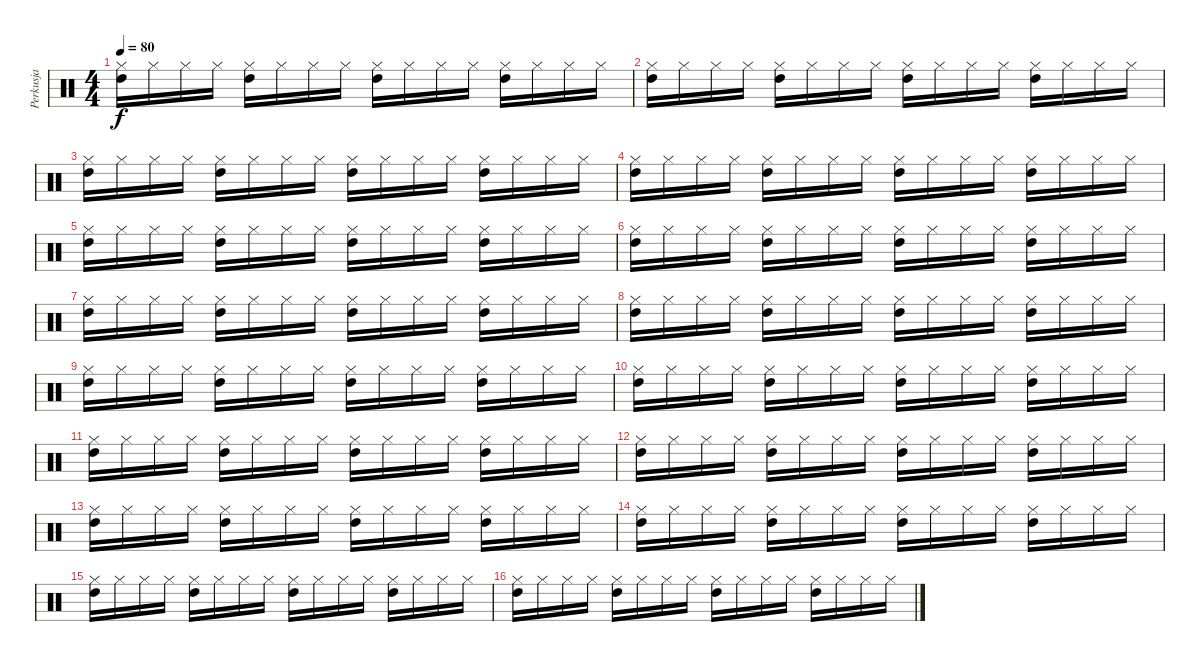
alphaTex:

\track ("Perkusja" "Perkusja") {instrument percussion}
\staff {score}
\articulation defaults
\ts (4 4)
\tempo 80
\clef neutral
\ks c
("Hi-Hat (closed)" "High Tom (hit)").16{dy f} "Hi-Hat (closed)".16 "Hi-Hat (closed)".16 "Hi-Hat (closed)".16 ("Hi-Hat (closed)" "High Tom (hit)").16 "Hi-Hat (closed)".16 "Hi-Hat (closed)".16 "Hi-Hat (closed)".16 ("Hi-Hat (closed)" "High Tom (hit)").16 "Hi-Hat (closed)".16 "Hi-Hat (closed)".16 "Hi-Hat (closed)".16 ("Hi-Hat (closed)" "High Tom (hit)").16 "Hi-Hat (closed)".16 "Hi-Hat (closed)".16 "Hi-Hat (closed)".16 |
("Hi-Hat (closed)" "High Tom (hit)").16 "Hi-Hat (closed)".16 "Hi-Hat (closed)".16 "Hi-Hat (closed)".16 ("Hi-Hat (closed)" "High Tom (hit)").16 "Hi-Hat (closed)".16 "Hi-Hat (closed)".16 "Hi-Hat (closed)".16 ("Hi-Hat (closed)" "High Tom (hit)").16 "Hi-Hat (closed)".16 "Hi-Hat (closed)".16 "Hi-Hat (closed)".16 ("Hi-Hat (closed)" "High Tom (hit)").16 "Hi-Hat (closed)".16 "Hi-Hat (closed)".16 "Hi-Hat (closed)".16 |
("Hi-Hat (closed)" "High Tom (hit)").16 "Hi-Hat (closed)".16 "Hi-Hat (closed)".16 "Hi-Hat (closed)".16 ("Hi-Hat (closed)" "High Tom (hit)").16 "Hi-Hat (closed)".16 "Hi-Hat (closed)".16 "Hi-Hat (closed)".16 ("Hi-Hat (closed)" "High Tom (hit)").16 "Hi-Hat (closed)".16 "Hi-Hat (closed)".16 "Hi-Hat (closed)".16 ("Hi-Hat (closed)" "High Tom (hit)").16 "Hi-Hat (closed)".16 "Hi-Hat (closed)".16 "Hi-Hat (closed)".16 |
("Hi-Hat (closed)" "High Tom (hit)").16 "Hi-Hat (closed)".16 "Hi-Hat (closed)".16 "Hi-Hat (closed)".16 ("Hi-Hat (closed)" "High Tom (hit)").16 "Hi-Hat (closed)".16 "Hi-Hat (closed)".16 "Hi-Hat (closed)".16 ("Hi-Hat (closed)" "High Tom (hit)").16 "Hi-Hat (closed)".16 "Hi-Hat (closed)".16 "Hi-Hat (closed)".16 ("Hi-Hat (closed)" "High Tom (hit)").16 "Hi-Hat (closed)".16 "Hi-Hat (closed)".16 "Hi-Hat (closed)".16 |
("Hi-Hat (closed)" "High Tom (hit)").16 "Hi-Hat (closed)".16 "Hi-Hat (closed)".16 "Hi-Hat (closed)".16 ("Hi-Hat (closed)" "High Tom (hit)").16 "Hi-Hat (closed)".16 "Hi-Hat (closed)".16 "Hi-Hat (closed)".16 ("Hi-Hat (closed)" "High Tom (hit)").16 "Hi-Hat (closed)".16 "Hi-Hat (closed)".16 "Hi-Hat (closed)".16 ("Hi-Hat (closed)" "High Tom (hit)").16 "Hi-Hat (closed)".16 "Hi-Hat (closed)".16 "Hi-Hat (closed)".16 |
("Hi-Hat (closed)" "High Tom (hit)").16 "Hi-Hat (closed)".16 "Hi-Hat (closed)".16 "Hi-Hat (closed)".16 ("Hi-Hat (closed)" "High Tom (hit)").16 "Hi-Hat (closed)".16 "Hi-Hat (closed)".16 "Hi-Hat (closed)".16 ("Hi-Hat (closed)" "High Tom (hit)").16 "Hi-Hat (closed)".16 "Hi-Hat (closed)".16 "Hi-Hat (closed)".16 ("Hi-Hat (closed)" "High Tom (hit)").16 "Hi-Hat (closed)".16 "Hi-Hat (closed)".16 "Hi-Hat (closed)".16 |
("Hi-Hat (closed)" "High Tom (hit)").16 "Hi-Hat (closed)".16 "Hi-Hat (closed)".16 "Hi-Hat (closed)".16 ("Hi-Hat (closed)" "High Tom (hit)").16 "Hi-Hat (closed)".16 "Hi-Hat (closed)".16 "Hi-Hat (closed)".16 ("Hi-Hat (closed)" "High Tom (hit)").16 "Hi-Hat (closed)".16 "Hi-Hat (closed)".16 "Hi-Hat (closed)".16 ("Hi-Hat (closed)" "High Tom (hit)").16 "Hi-Hat (closed)".16 "Hi-Hat (closed)".16 "Hi-Hat (closed)".16 |
("Hi-Hat (closed)" "High Tom (hit)").16 "Hi-Hat (closed)".16 "Hi-Hat (closed)".16 "Hi-Hat (closed)".16 ("Hi-Hat (closed)" "High Tom (hit)").16 "Hi-Hat (closed)".16 "Hi-Hat (closed)".16 "Hi-Hat (closed)".16 ("Hi-Hat (closed)" "High Tom (hit)").16 "Hi-Hat (closed)".16 "Hi-Hat (closed)".16 "Hi-Hat (closed)".16 ("Hi-Hat (closed)" "High Tom (hit)").16 "Hi-Hat (closed)".16 "Hi-Hat (closed)".16 "Hi-Hat (closed)".16 |
("Hi-Hat (closed)" "High Tom (hit)").16 "Hi-Hat (closed)".16 "Hi-Hat (closed)".16 "Hi-Hat (closed)".16 ("Hi-Hat (closed)" "High Tom (hit)").16 "Hi-Hat (closed)".16 "Hi-Hat (closed)".16 "Hi-Hat (closed)".16 ("Hi-Hat (closed)" "High Tom (hit)").16 "Hi-Hat (closed)".16 "Hi-Hat (closed)".16 "Hi-Hat (closed)".16 ("Hi-Hat (closed)" "High Tom (hit)").16 "Hi-Hat (closed)".16 "Hi-Hat (closed)".16 "Hi-Hat (closed)".16 |
("Hi-Hat (closed)" "High Tom (hit)").16 "Hi-Hat (closed)".16 "Hi-Hat (closed)".16 "Hi-Hat (closed)".16 ("Hi-Hat (closed)" "High Tom (hit)").16 "Hi-Hat (closed)".16 "Hi-Hat (closed)".16 "Hi-Hat (closed)".16 ("Hi-Hat (closed)" "High Tom (hit)").16 "Hi-Hat (closed)".16 "Hi-Hat (closed)".16 "Hi-Hat (closed)".16 ("Hi-Hat (closed)" "High Tom (hit)").16 "Hi-Hat (closed)".16 "Hi-Hat (closed)".16 "Hi-Hat (closed)".16 |
("Hi-Hat (closed)" "High Tom (hit)").16 "Hi-Hat (closed)".16 "Hi-Hat (closed)".16 "Hi-Hat (closed)".16 ("Hi-Hat (closed)" "High Tom (hit)").16 "Hi-Hat (closed)".16 "Hi-Hat (closed)".16 "Hi-Hat (closed)".16 ("Hi-Hat (closed)" "High Tom (hit)").16 "Hi-Hat (closed)".16 "Hi-Hat (closed)".16 "Hi-Hat (closed)".16 ("Hi-Hat (closed)" "High Tom (hit)").16 "Hi-Hat (closed)".16 "Hi-Hat (closed)".16 "Hi-Hat (closed)".16 |
("Hi-Hat (closed)" "High Tom (hit)").16 "Hi-Hat (closed)".16 "Hi-Hat (closed)".16 "Hi-Hat (closed)".16 ("Hi-Hat (closed)" "High Tom (hit)").16 "Hi-Hat (closed)".16 "Hi-Hat (closed)".16 "Hi-Hat (closed)".16 ("Hi-Hat (closed)" "High Tom (hit)").16 "Hi-Hat (closed)".16 "Hi-Hat (closed)".16 "Hi-Hat (closed)".16 ("Hi-Hat (closed)" "High Tom (hit)").16 "Hi-Hat (closed)".16 "Hi-Hat (closed)".16 "Hi-Hat (closed)".16 |
("Hi-Hat (closed)" "High Tom (hit)").16 "Hi-Hat (closed)".16 "Hi-Hat (closed)".16 "Hi-Hat (closed)".16 ("Hi-Hat (closed)" "High Tom (hit)").16 "Hi-Hat (closed)".16 "Hi-Hat (closed)".16 "Hi-Hat (closed)".16 ("Hi-Hat (closed)" "High Tom (hit)").16 "Hi-Hat (closed)".16 "Hi-Hat (closed)".16 "Hi-Hat (closed)".16 ("Hi-Hat (closed)" "High Tom (hit)").16 "Hi-Hat (closed)".16 "Hi-Hat (closed)".16 "Hi-Hat (closed)".16 |
("Hi-Hat (closed)" "High Tom (hit)").16 "Hi-Hat (closed)".16 "Hi-Hat (closed)".16 "Hi-Hat (closed)".16 ("Hi-Hat (closed)" "High Tom (hit)").16 "Hi-Hat (closed)".16 "Hi-Hat (closed)".16 "Hi-Hat (closed)".16 ("Hi-Hat (closed)" "High Tom (hit)").16 "Hi-Hat (closed)".16 "Hi-Hat (closed)".16 "Hi-Hat (closed)".16 ("Hi-Hat (closed)" "High Tom (hit)").16 "Hi-Hat (closed)".16 "Hi-Hat (closed)".16 "Hi-Hat (closed)".16 |
("Hi-Hat (closed)" "High Tom (hit)").16 "Hi-Hat (closed)".16 "Hi-Hat (closed)".16 "Hi-Hat (closed)".16 ("Hi-Hat (closed)" "High Tom (hit)").16 "Hi-Hat (closed)".16 "Hi-Hat (closed)".16 "Hi-Hat (closed)".16 ("Hi-Hat (closed)" "High Tom (hit)").16 "Hi-Hat (closed)".16 "Hi-Hat (closed)".16 "Hi-Hat (closed)".16 ("Hi-Hat (closed)" "High Tom (hit)").16 "Hi-Hat (closed)".16 "Hi-Hat (closed)".16 "Hi-Hat (closed)".16 |
("Hi-Hat (closed)" "High Tom (hit)").16 "Hi-Hat (closed)".16 "Hi-Hat (closed)".16 "Hi-Hat (closed)".16 ("Hi-Hat (closed)" "High Tom (hit)").16 "Hi-Hat (closed)".16 "Hi-Hat (closed)".16 "Hi-Hat (closed)".16 ("Hi-Hat (closed)" "High Tom (hit)").16 "Hi-Hat (closed)".16 "Hi-Hat (closed)".16 "Hi-Hat (closed)".16 ("Hi-Hat (closed)" "High Tom (hit)").16 "Hi-Hat (closed)".16 "Hi-Hat (closed)".16 "Hi-Hat (closed)".16
